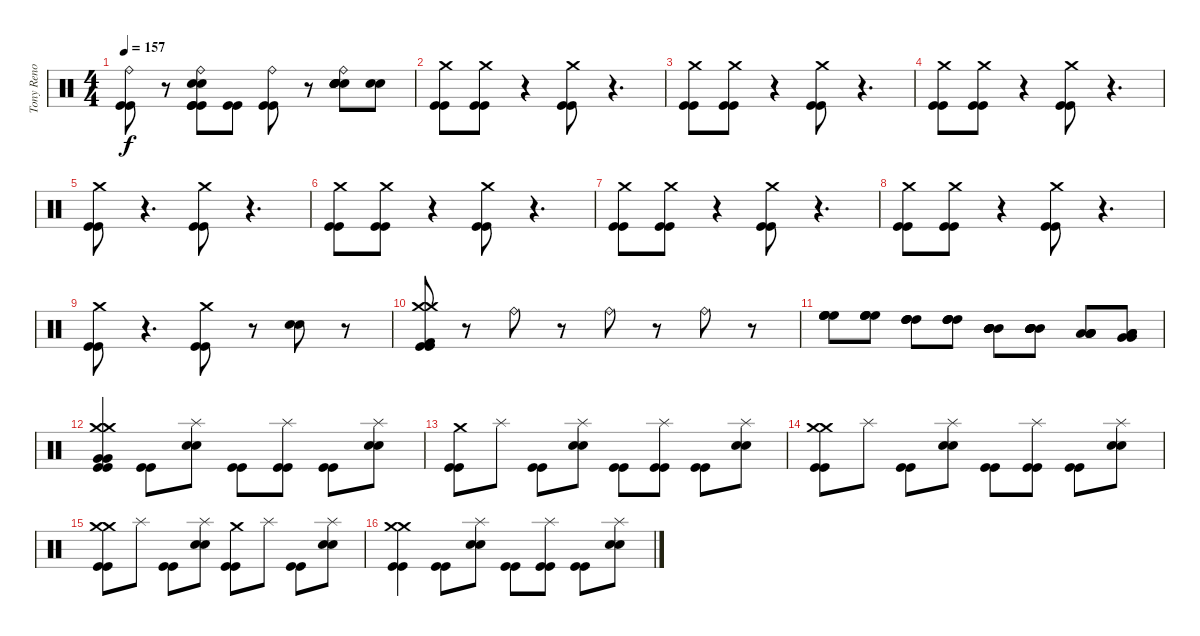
\track ("Tony Reno ( 1984 < Ian Haughland )" "Tony Reno ") {instrument percussion}
\staff {score}
\articulation defaults
\ts (4 4)
\tempo 157
\clef neutral
\ks c
("Ride (bell)" "Kick (hit)" "Kick (hit)").8{dy f} r.8 ("Kick (hit)" "Kick (hit)" "Electric Snare (hit)" "Electric Snare (hit)" "Ride (bell)" "Kick (hit)").8 ("Kick (hit)" "Kick (hit)").8 ("Kick (hit)" "Kick (hit)" "Ride (bell)").8 r.8 ("Electric Snare (hit)" "Electric Snare (hit)" "Electric Snare (hit)" "Electric Snare (hit)" "Ride (bell)" "Electric Snare (hit)").8 ("Electric Snare (hit)" "Electric Snare (hit)").8 |
("Kick (hit)" "Kick (hit)" "Crash medium (hit)").8 ("Kick (hit)" "Kick (hit)" "Crash medium (hit)").8 r.4 ("Kick (hit)" "Kick (hit)" "Crash medium (hit)").8 r.4{d} |
("Kick (hit)" "Kick (hit)" "Crash medium (hit)").8 ("Kick (hit)" "Kick (hit)" "Crash medium (hit)").8 r.4 ("Kick (hit)" "Kick (hit)" "Crash medium (hit)").8 r.4{d} |
("Kick (hit)" "Kick (hit)" "Crash medium (hit)").8 ("Kick (hit)" "Kick (hit)" "Crash medium (hit)").8 r.4 ("Kick (hit)" "Kick (hit)" "Crash medium (hit)").8 r.4{d} |
("Kick (hit)" "Kick (hit)" "Crash medium (hit)").8 r.4{d} ("Crash medium (hit)" "Kick (hit)" "Kick (hit)").8 r.4{d} |
("Kick (hit)" "Kick (hit)" "Crash medium (hit)").8 ("Kick (hit)" "Kick (hit)" "Crash medium (hit)").8 r.4 ("Kick (hit)" "Kick (hit)" "Crash medium (hit)").8 r.4{d} |
("Kick (hit)" "Kick (hit)" "Crash medium (hit)").8 ("Kick (hit)" "Kick (hit)" "Crash medium (hit)").8 r.4 ("Kick (hit)" "Kick (hit)" "Crash medium (hit)").8 r.4{d} |
("Kick (hit)" "Kick (hit)" "Crash medium (hit)").8 ("Kick (hit)" "Kick (hit)" "Crash medium (hit)").8 r.4 ("Kick (hit)" "Kick (hit)" "Crash medium (hit)").8 r.4{d} |
("Kick (hit)" "Kick (hit)" "Crash medium (hit)").8 r.4{d} ("Crash medium (hit)" "Kick (hit)" "Kick (hit)").8 r.8 ("Electric Snare (hit)" "Electric Snare (hit)").8 r.8 |
("Kick (hit)" "Kick (hit)" "Kick (hit) 2" "Crash medium (hit)" "Crash medium (hit)").8 r.8 "Ride (bell)".8 r.8 "Ride (bell)".8 r.8 "Ride (bell)".8 r.8 |
("High Floor Tom (hit)" "High Floor Tom (hit)" "High Floor Tom (hit)" "High Floor Tom (hit)").8 ("High Floor Tom (hit)" "High Floor Tom (hit)" "High Floor Tom (hit)" "High Floor Tom (hit)").8 ("High Tom (hit)" "High Tom (hit)" "High Tom (hit)" "High Tom (hit)").8 ("High Tom (hit)" "High Tom (hit)" "High Tom (hit)" "High Tom (hit)").8 ("Mid Tom (hit)" "Mid Tom (hit)" "Mid Tom (hit)" "Mid Tom (hit)" "Mid Tom (hit)").8 ("Mid Tom (hit)" "Mid Tom (hit)" "Mid Tom (hit)" "Mid Tom (hit)" "Mid Tom (hit)" "Mid Tom (hit)").8 ("Low Tom (hit)" "Low Tom (hit)" "Low Tom (hit)" "Low Tom (hit)").8 ("Low Tom (hit)" "Low Tom (hit)" "Very Low Tom (hit)" "Very Low Tom (hit)").8 |
("Crash medium (hit)" "Crash medium (hit)" "Kick (hit)" "Kick (hit)" "Very Low Tom (hit)" "Very Low Tom (hit)").4 ("Kick (hit)" "Kick (hit)").8 ("Splash (hit)" "Electric Snare (hit)" "Electric Snare (hit)").8 ("Kick (hit)" "Kick (hit)").8 ("Splash (hit)" "Kick (hit)" "Kick (hit)").8 ("Kick (hit)" "Kick (hit)").8 ("Electric Snare (hit)" "Electric Snare (hit)" "Splash (hit)").8 |
("Kick (hit)" "Kick (hit)" "Crash medium (hit)").8 "Splash (hit)".8 ("Kick (hit)" "Kick (hit)").8 ("Electric Snare (hit)" "Electric Snare (hit)" "Splash (hit)").8 ("Kick (hit)" "Kick (hit)").8 ("Kick (hit)" "Kick (hit)" "Splash (hit)").8 ("Kick (hit)" "Kick (hit)").8 ("Electric Snare (hit)" "Electric Snare (hit)" "Splash (hit)").8 |
("Crash medium (hit)" "Crash medium (hit)" "Kick (hit)" "Kick (hit)").8 "Splash (hit)".8 ("Kick (hit)" "Kick (hit)").8 ("Splash (hit)" "Electric Snare (hit)" "Electric Snare (hit)").8 ("Kick (hit)" "Kick (hit)").8 ("Splash (hit)" "Kick (hit)" "Kick (hit)").8 ("Kick (hit)" "Kick (hit)").8 ("Electric Snare (hit)" "Electric Snare (hit)" "Splash (hit)").8 |
("Crash medium (hit)" "Crash medium (hit)" "Kick (hit)" "Kick (hit)").8 "Splash (hit)".8 ("Kick (hit)" "Kick (hit)").8 ("Splash (hit)" "Electric Snare (hit)" "Electric Snare (hit)").8 ("Kick (hit)" "Kick (hit)" "Crash medium (hit)").8 "Splash (hit)".8 ("Kick (hit)" "Kick (hit)").8 ("Electric Snare (hit)" "Electric Snare (hit)" "Splash (hit)").8 |
("Crash medium (hit)" "Crash medium (hit)" "Kick (hit)" "Kick (hit)").4 ("Kick (hit)" "Kick (hit)").8 ("Splash (hit)" "Electric Snare (hit)" "Electric Snare (hit)").8 ("Kick (hit)" "Kick (hit)").8 ("Splash (hit)" "Kick (hit)" "Kick (hit)").8 ("Kick (hit)" "Kick (hit)").8 ("Electric Snare (hit)" "Electric Snare (hit)" "Splash (hit)").8
